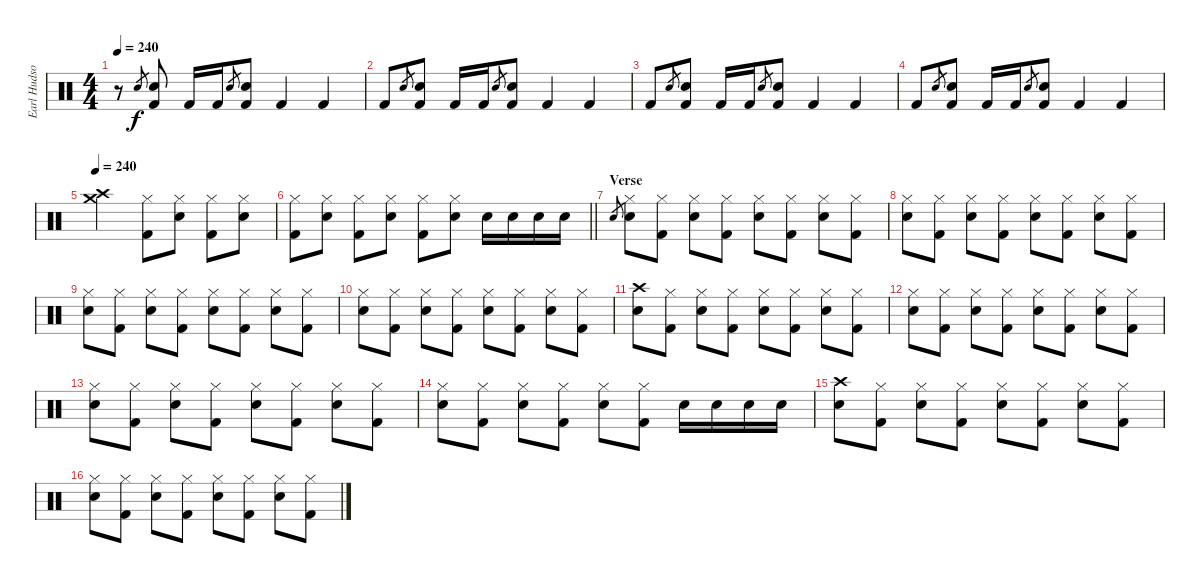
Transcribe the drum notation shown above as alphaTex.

\track ("Earl Hudson" "Earl Hudso") {instrument percussion}
\staff {score}
\articulation defaults
\ts (4 4)
\tempo 240
\tempo 118
\tempo 240
\clef neutral
\ks c
r.8{dy f} "Snare (hit) 2".8{gr} ("Snare (hit) 2" "Kick (hit) 2").8 "Kick (hit) 2".16 "Kick (hit) 2".16 "Snare (hit) 2".8{gr} ("Snare (hit) 2" "Kick (hit) 2").8 "Kick (hit) 2".4 "Kick (hit) 2".4 |
"Kick (hit) 2".8 "Snare (hit) 2".8{gr} ("Snare (hit) 2" "Kick (hit) 2").8 "Kick (hit) 2".16 "Kick (hit) 2".16 "Snare (hit) 2".8{gr} ("Snare (hit) 2" "Kick (hit) 2").8 "Kick (hit) 2".4 "Kick (hit) 2".4 |
"Kick (hit) 2".8 "Snare (hit) 2".8{gr} ("Snare (hit) 2" "Kick (hit) 2").8 "Kick (hit) 2".16 "Kick (hit) 2".16 "Snare (hit) 2".8{gr} ("Snare (hit) 2" "Kick (hit) 2").8 "Kick (hit) 2".4 "Kick (hit) 2".4 |
"Kick (hit) 2".8 "Snare (hit) 2".8{gr} ("Snare (hit) 2" "Kick (hit) 2").8 "Kick (hit) 2".16 "Kick (hit) 2".16 "Snare (hit) 2".8{gr} ("Snare (hit) 2" "Kick (hit) 2").8 "Kick (hit) 2".4 "Kick (hit) 2".4 |
\tempo 240
("Crash medium (hit)" "Crash high (hit)").2 ("Hi-Hat (closed)" "Kick (hit) 2").8 ("Hi-Hat (closed)" "Snare (hit) 2").8 ("Hi-Hat (closed)" "Kick (hit) 2").8 ("Hi-Hat (closed)" "Snare (hit) 2").8 |
\barLineRight lightlight
("Hi-Hat (closed)" "Kick (hit) 2").8 ("Hi-Hat (closed)" "Snare (hit) 2").8 ("Hi-Hat (closed)" "Kick (hit) 2").8 ("Hi-Hat (closed)" "Snare (hit) 2").8 ("Hi-Hat (closed)" "Kick (hit) 2").8 ("Hi-Hat (closed)" "Snare (hit) 2").8 "Snare (hit) 2".16 "Snare (hit) 2".16 "Snare (hit) 2".16 "Snare (hit) 2".16 |
\section ("" "Verse")
"Snare (hit) 2".8{gr} ("Hi-Hat (closed)" "Snare (hit) 2").8 ("Hi-Hat (closed)" "Kick (hit) 2").8 ("Hi-Hat (closed)" "Snare (hit) 2").8 ("Hi-Hat (closed)" "Kick (hit) 2").8 ("Hi-Hat (closed)" "Snare (hit) 2").8 ("Hi-Hat (closed)" "Kick (hit) 2").8 ("Hi-Hat (closed)" "Snare (hit) 2").8 ("Hi-Hat (closed)" "Kick (hit) 2").8 |
("Hi-Hat (closed)" "Snare (hit) 2").8 ("Hi-Hat (closed)" "Kick (hit) 2").8 ("Hi-Hat (closed)" "Snare (hit) 2").8 ("Hi-Hat (closed)" "Kick (hit) 2").8 ("Hi-Hat (closed)" "Snare (hit) 2").8 ("Hi-Hat (closed)" "Kick (hit) 2").8 ("Hi-Hat (closed)" "Snare (hit) 2").8 ("Hi-Hat (closed)" "Kick (hit) 2").8 |
("Hi-Hat (closed)" "Snare (hit) 2").8 ("Hi-Hat (closed)" "Kick (hit) 2").8 ("Hi-Hat (closed)" "Snare (hit) 2").8 ("Hi-Hat (closed)" "Kick (hit) 2").8 ("Hi-Hat (closed)" "Snare (hit) 2").8 ("Hi-Hat (closed)" "Kick (hit) 2").8 ("Hi-Hat (closed)" "Snare (hit) 2").8 ("Hi-Hat (closed)" "Kick (hit) 2").8 |
("Hi-Hat (closed)" "Snare (hit) 2").8 ("Hi-Hat (closed)" "Kick (hit) 2").8 ("Hi-Hat (closed)" "Snare (hit) 2").8 ("Hi-Hat (closed)" "Kick (hit) 2").8 ("Hi-Hat (closed)" "Snare (hit) 2").8 ("Hi-Hat (closed)" "Kick (hit) 2").8 ("Hi-Hat (closed)" "Snare (hit) 2").8 ("Hi-Hat (closed)" "Kick (hit) 2").8 |
("Crash high (hit)" "Snare (hit) 2").8 ("Hi-Hat (closed)" "Kick (hit) 2").8 ("Hi-Hat (closed)" "Snare (hit) 2").8 ("Hi-Hat (closed)" "Kick (hit) 2").8 ("Hi-Hat (closed)" "Snare (hit) 2").8 ("Hi-Hat (closed)" "Kick (hit) 2").8 ("Hi-Hat (closed)" "Snare (hit) 2").8 ("Hi-Hat (closed)" "Kick (hit) 2").8 |
("Hi-Hat (closed)" "Snare (hit) 2").8 ("Hi-Hat (closed)" "Kick (hit) 2").8 ("Hi-Hat (closed)" "Snare (hit) 2").8 ("Hi-Hat (closed)" "Kick (hit) 2").8 ("Hi-Hat (closed)" "Snare (hit) 2").8 ("Hi-Hat (closed)" "Kick (hit) 2").8 ("Hi-Hat (closed)" "Snare (hit) 2").8 ("Hi-Hat (closed)" "Kick (hit) 2").8 |
("Hi-Hat (closed)" "Snare (hit) 2").8 ("Hi-Hat (closed)" "Kick (hit) 2").8 ("Hi-Hat (closed)" "Snare (hit) 2").8 ("Hi-Hat (closed)" "Kick (hit) 2").8 ("Hi-Hat (closed)" "Snare (hit) 2").8 ("Hi-Hat (closed)" "Kick (hit) 2").8 ("Hi-Hat (closed)" "Snare (hit) 2").8 ("Hi-Hat (closed)" "Kick (hit) 2").8 |
("Hi-Hat (closed)" "Snare (hit) 2").8 ("Hi-Hat (closed)" "Kick (hit) 2").8 ("Hi-Hat (closed)" "Snare (hit) 2").8 ("Hi-Hat (closed)" "Kick (hit) 2").8 ("Hi-Hat (closed)" "Snare (hit) 2").8 ("Hi-Hat (closed)" "Kick (hit) 2").8 "Snare (hit) 2".16 "Snare (hit) 2".16 "Snare (hit) 2".16 "Snare (hit) 2".16 |
("Crash high (hit)" "Snare (hit) 2").8 ("Hi-Hat (closed)" "Kick (hit) 2").8 ("Hi-Hat (closed)" "Snare (hit) 2").8 ("Hi-Hat (closed)" "Kick (hit) 2").8 ("Hi-Hat (closed)" "Snare (hit) 2").8 ("Hi-Hat (closed)" "Kick (hit) 2").8 ("Hi-Hat (closed)" "Snare (hit) 2").8 ("Hi-Hat (closed)" "Kick (hit) 2").8 |
("Hi-Hat (closed)" "Snare (hit) 2").8 ("Hi-Hat (closed)" "Kick (hit) 2").8 ("Hi-Hat (closed)" "Snare (hit) 2").8 ("Hi-Hat (closed)" "Kick (hit) 2").8 ("Hi-Hat (closed)" "Snare (hit) 2").8 ("Hi-Hat (closed)" "Kick (hit) 2").8 ("Hi-Hat (closed)" "Snare (hit) 2").8 ("Hi-Hat (closed)" "Kick (hit) 2").8
